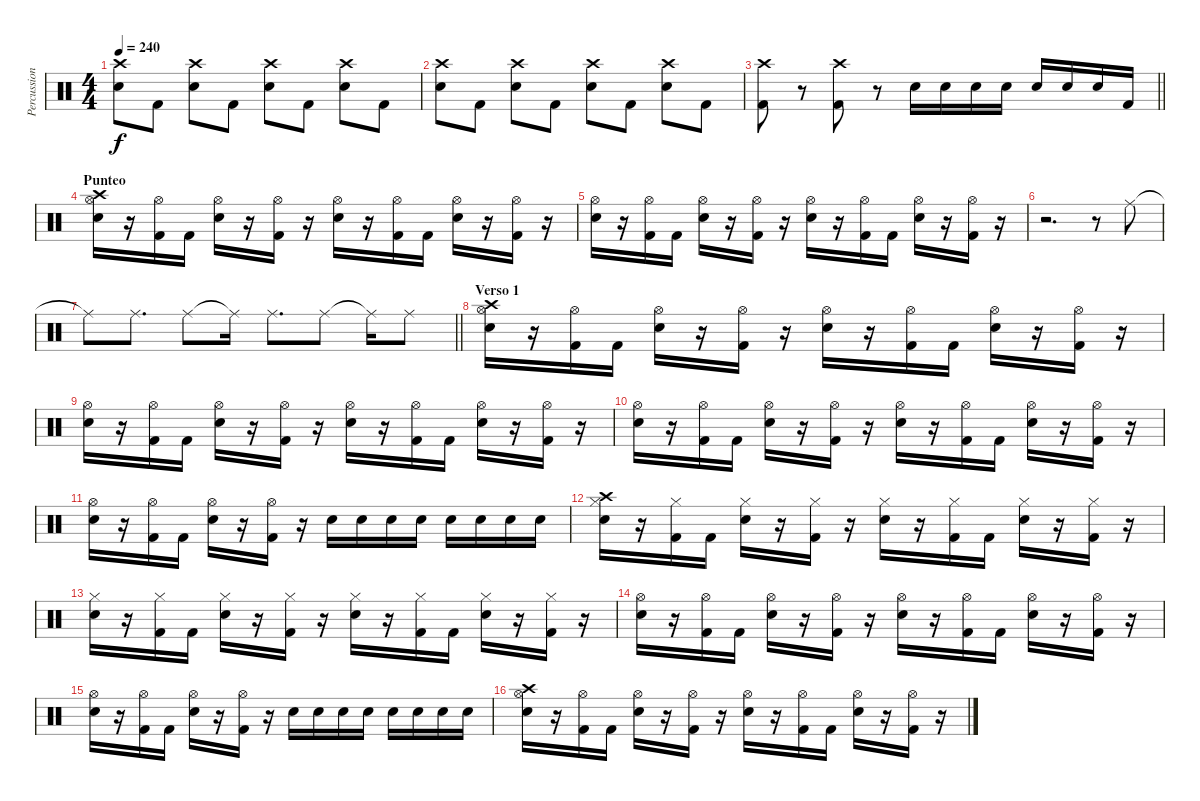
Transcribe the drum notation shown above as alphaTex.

\track ("Percussion" "Percussion") {instrument percussion}
\staff {score}
\articulation defaults
\ts (4 4)
\tempo 240
\clef neutral
\ks c
("Crash high (hit)" "Electric Snare (hit)").8{dy f} "Kick (hit) 2".8 ("Crash high (hit)" "Electric Snare (hit)").8 "Kick (hit) 2".8 ("Crash high (hit)" "Electric Snare (hit)").8 "Kick (hit) 2".8 ("Crash high (hit)" "Electric Snare (hit)").8 "Kick (hit) 2".8 |
("Crash high (hit)" "Electric Snare (hit)").8 "Kick (hit) 2".8 ("Crash high (hit)" "Electric Snare (hit)").8 "Kick (hit) 2".8 ("Crash high (hit)" "Electric Snare (hit)").8 "Kick (hit) 2".8 ("Crash high (hit)" "Electric Snare (hit)").8 "Kick (hit) 2".8 |
\barLineRight lightlight
("Crash high (hit)" "Kick (hit) 2").8 r.8 ("Crash high (hit)" "Kick (hit) 2").8 r.8 "Electric Snare (hit)".16 "Electric Snare (hit)".16 "Electric Snare (hit)".16 "Electric Snare (hit)".16 "Electric Snare (hit)".16 "Electric Snare (hit)".16 "Electric Snare (hit)".16 "Kick (hit) 2".16 |
\section ("" "Punteo")
("Crash high (hit)" "Hi-Hat (open)" "Electric Snare (hit)").16 r.16 ("Hi-Hat (open)" "Kick (hit) 2").16 "Kick (hit) 2".16 ("Hi-Hat (open)" "Electric Snare (hit)").16 r.16 ("Hi-Hat (open)" "Kick (hit) 2").16 r.16 ("Hi-Hat (open)" "Electric Snare (hit)").16 r.16 ("Hi-Hat (open)" "Kick (hit) 2").16 "Kick (hit) 2".16 ("Hi-Hat (open)" "Electric Snare (hit)").16 r.16 ("Hi-Hat (open)" "Kick (hit) 2").16 r.16 |
("Hi-Hat (open)" "Electric Snare (hit)").16 r.16 ("Hi-Hat (open)" "Kick (hit) 2").16 "Kick (hit) 2".16 ("Hi-Hat (open)" "Electric Snare (hit)").16 r.16 ("Hi-Hat (open)" "Kick (hit) 2").16 r.16 ("Hi-Hat (open)" "Electric Snare (hit)").16 r.16 ("Hi-Hat (open)" "Kick (hit) 2").16 "Kick (hit) 2".16 ("Hi-Hat (open)" "Electric Snare (hit)").16 r.16 ("Hi-Hat (open)" "Kick (hit) 2").16 r.16 |
r.2{d} r.8 "Ride (middle)".8 |
\barLineRight lightlight "Ride (middle)"{t}.8 "Ride (middle)".8{d} "Ride (middle)".8 "Ride (middle)"{t}.16 "Ride (middle)".8{d} "Ride (middle)".8 "Ride (middle)"{t}.16 "Ride (middle)".8
|
\section ("" "Verso 1")
("Crash high (hit)" "Hi-Hat (open)" "Electric Snare (hit)").16 r.16 ("Hi-Hat (open)" "Kick (hit) 2").16 "Kick (hit) 2".16 ("Hi-Hat (open)" "Electric Snare (hit)").16 r.16 ("Hi-Hat (open)" "Kick (hit) 2").16 r.16 ("Hi-Hat (open)" "Electric Snare (hit)").16 r.16 ("Hi-Hat (open)" "Kick (hit) 2").16 "Kick (hit) 2".16 ("Hi-Hat (open)" "Electric Snare (hit)").16 r.16 ("Hi-Hat (open)" "Kick (hit) 2").16 r.16 |
("Hi-Hat (open)" "Electric Snare (hit)").16 r.16 ("Hi-Hat (open)" "Kick (hit) 2").16 "Kick (hit) 2".16 ("Hi-Hat (open)" "Electric Snare (hit)").16 r.16 ("Hi-Hat (open)" "Kick (hit) 2").16 r.16 ("Hi-Hat (open)" "Electric Snare (hit)").16 r.16 ("Hi-Hat (open)" "Kick (hit) 2").16 "Kick (hit) 2".16 ("Hi-Hat (open)" "Electric Snare (hit)").16 r.16 ("Hi-Hat (open)" "Kick (hit) 2").16 r.16 |
("Hi-Hat (open)" "Electric Snare (hit)").16 r.16 ("Hi-Hat (open)" "Kick (hit) 2").16 "Kick (hit) 2".16 ("Hi-Hat (open)" "Electric Snare (hit)").16 r.16 ("Hi-Hat (open)" "Kick (hit) 2").16 r.16 ("Hi-Hat (open)" "Electric Snare (hit)").16 r.16 ("Hi-Hat (open)" "Kick (hit) 2").16 "Kick (hit) 2".16 ("Hi-Hat (open)" "Electric Snare (hit)").16 r.16 ("Hi-Hat (open)" "Kick (hit) 2").16 r.16 |
("Hi-Hat (open)" "Electric Snare (hit)").16 r.16 ("Hi-Hat (open)" "Kick (hit) 2").16 "Kick (hit) 2".16 ("Hi-Hat (open)" "Electric Snare (hit)").16 r.16 ("Hi-Hat (open)" "Kick (hit) 2").16 r.16 "Electric Snare (hit)".16 "Electric Snare (hit)".16 "Electric Snare (hit)".16 "Electric Snare (hit)".16 "Electric Snare (hit)".16 "Electric Snare (hit)".16 "Electric Snare (hit)".16 "Electric Snare (hit)".16 |
("Crash high (hit)" "Hi-Hat (closed)" "Electric Snare (hit)").16 r.16 ("Hi-Hat (closed)" "Kick (hit) 2").16 "Kick (hit) 2".16 ("Hi-Hat (closed)" "Electric Snare (hit)").16 r.16 ("Hi-Hat (closed)" "Kick (hit) 2").16 r.16 ("Hi-Hat (closed)" "Electric Snare (hit)").16 r.16 ("Hi-Hat (closed)" "Kick (hit) 2").16 "Kick (hit) 2".16 ("Hi-Hat (closed)" "Electric Snare (hit)").16 r.16 ("Hi-Hat (closed)" "Kick (hit) 2").16 r.16 |
("Hi-Hat (closed)" "Electric Snare (hit)").16 r.16 ("Hi-Hat (closed)" "Kick (hit) 2").16 "Kick (hit) 2".16 ("Hi-Hat (closed)" "Electric Snare (hit)").16 r.16 ("Hi-Hat (closed)" "Kick (hit) 2").16 r.16 ("Hi-Hat (closed)" "Electric Snare (hit)").16 r.16 ("Hi-Hat (closed)" "Kick (hit) 2").16 "Kick (hit) 2".16 ("Hi-Hat (closed)" "Electric Snare (hit)").16 r.16 ("Hi-Hat (closed)" "Kick (hit) 2").16 r.16 |
("Hi-Hat (open)" "Electric Snare (hit)").16 r.16 ("Hi-Hat (open)" "Kick (hit) 2").16 "Kick (hit) 2".16 ("Hi-Hat (open)" "Electric Snare (hit)").16 r.16 ("Hi-Hat (open)" "Kick (hit) 2").16 r.16 ("Hi-Hat (open)" "Electric Snare (hit)").16 r.16 ("Hi-Hat (open)" "Kick (hit) 2").16 "Kick (hit) 2".16 ("Hi-Hat (open)" "Electric Snare (hit)").16 r.16 ("Hi-Hat (open)" "Kick (hit) 2").16 r.16 |
("Hi-Hat (open)" "Electric Snare (hit)").16 r.16 ("Hi-Hat (open)" "Kick (hit) 2").16 "Kick (hit) 2".16 ("Hi-Hat (open)" "Electric Snare (hit)").16 r.16 ("Hi-Hat (open)" "Kick (hit) 2").16 r.16 "Electric Snare (hit)".16 "Electric Snare (hit)".16 "Electric Snare (hit)".16 "Electric Snare (hit)".16 "Electric Snare (hit)".16 "Electric Snare (hit)".16 "Electric Snare (hit)".16 "Electric Snare (hit)".16 |
("Crash high (hit)" "Hi-Hat (open)" "Electric Snare (hit)").16 r.16 ("Hi-Hat (open)" "Kick (hit) 2").16 "Kick (hit) 2".16 ("Hi-Hat (open)" "Electric Snare (hit)").16 r.16 ("Hi-Hat (open)" "Kick (hit) 2").16 r.16 ("Hi-Hat (open)" "Electric Snare (hit)").16 r.16 ("Hi-Hat (open)" "Kick (hit) 2").16 "Kick (hit) 2".16 ("Hi-Hat (open)" "Electric Snare (hit)").16 r.16 ("Hi-Hat (open)" "Kick (hit) 2").16 r.16
